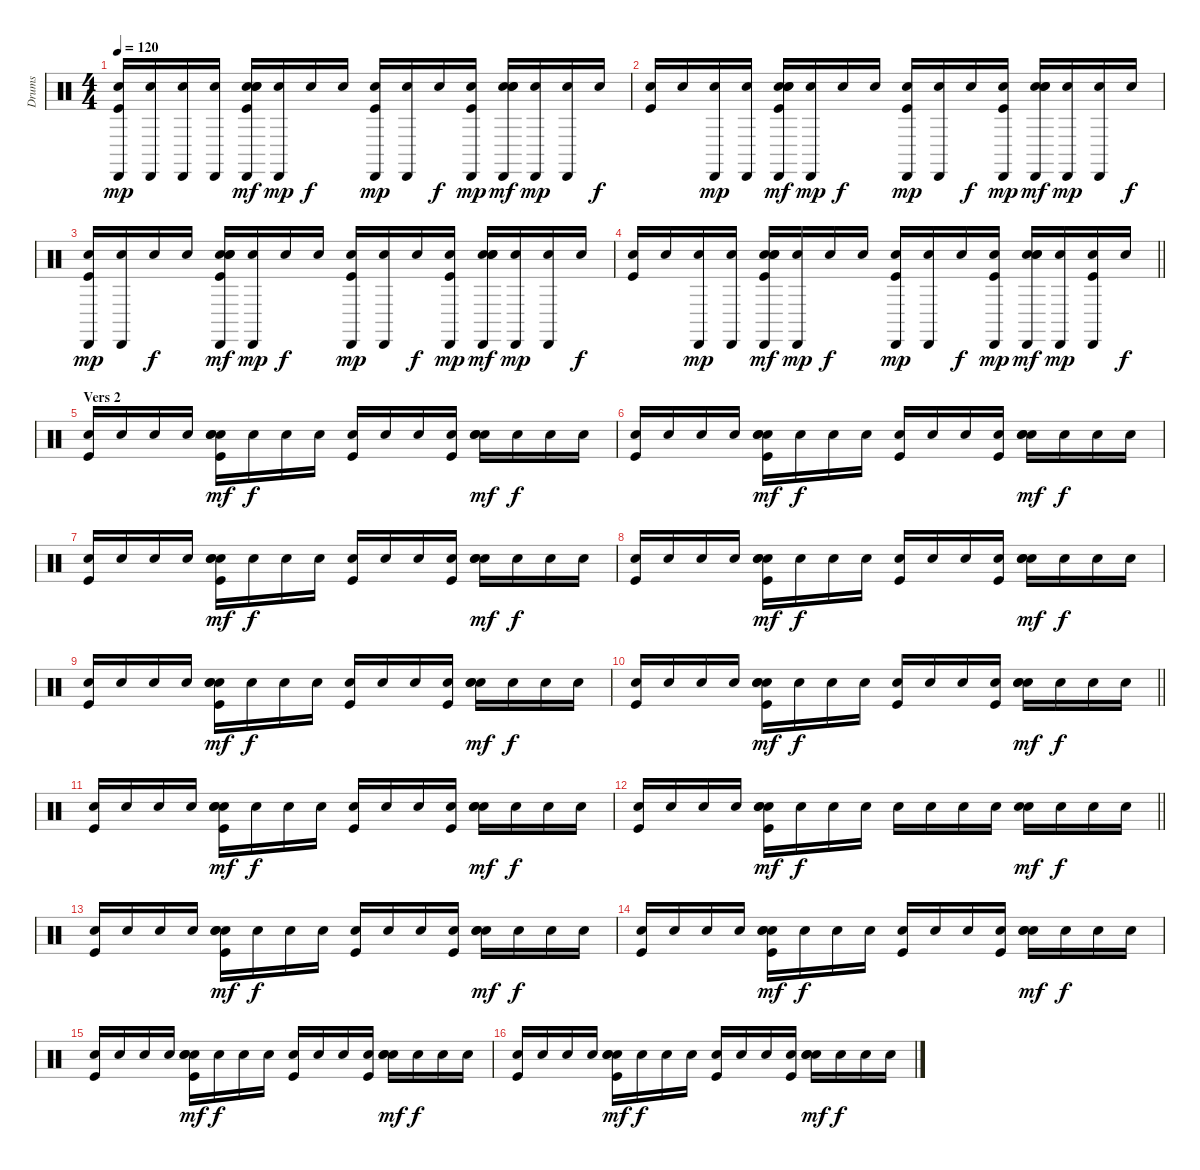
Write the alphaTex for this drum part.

\track ("Drums" "Drums") {instrument percussion}
\staff {score}
\articulation defaults
\ts (4 4)
\tempo 120
\clef neutral
\ks c
("Snare (hit)" "Cabasa (hit)" "Kick (hit)").16{dy mp} ("Snare (hit)" "Cabasa (hit)").16 ("Snare (hit)" "Cabasa (hit)").16 ("Snare (hit)" "Cabasa (hit)").16 ("Snare (hit)" "Cabasa (hit)" "Hand Clap (hit)" "Electric Snare (hit)" "Kick (hit)").16{dy mf} ("Snare (hit)" "Cabasa (hit)").16{dy mp} "Snare (hit)".16{dy f} "Snare (hit)".16 ("Snare (hit)" "Cabasa (hit)" "Kick (hit)").16{dy mp} ("Snare (hit)" "Cabasa (hit)").16 "Snare (hit)".16{dy f} ("Snare (hit)" "Cabasa (hit)" "Kick (hit)").16{dy mp} ("Snare (hit)" "Cabasa (hit)" "Hand Clap (hit)" "Electric Snare (hit)").16{dy mf} ("Snare (hit)" "Cabasa (hit)").16{dy mp} ("Snare (hit)" "Cabasa (hit)").16 "Snare (hit)".16{dy f} |
("Snare (hit)" "Kick (hit)").16 "Snare (hit)".16 ("Snare (hit)" "Cabasa (hit)").16{dy mp} ("Snare (hit)" "Cabasa (hit)").16 ("Snare (hit)" "Cabasa (hit)" "Hand Clap (hit)" "Electric Snare (hit)" "Kick (hit)").16{dy mf} ("Snare (hit)" "Cabasa (hit)").16{dy mp} "Snare (hit)".16{dy f} "Snare (hit)".16 ("Snare (hit)" "Cabasa (hit)" "Kick (hit)").16{dy mp} ("Snare (hit)" "Cabasa (hit)").16 "Snare (hit)".16{dy f} ("Snare (hit)" "Cabasa (hit)" "Kick (hit)").16{dy mp} ("Snare (hit)" "Cabasa (hit)" "Hand Clap (hit)" "Electric Snare (hit)").16{dy mf} ("Snare (hit)" "Cabasa (hit)").16{dy mp} ("Snare (hit)" "Cabasa (hit)").16 "Snare (hit)".16{dy f} |
("Snare (hit)" "Cabasa (hit)" "Kick (hit)").16{dy mp} ("Snare (hit)" "Cabasa (hit)").16 "Snare (hit)".16{dy f} "Snare (hit)".16 ("Snare (hit)" "Cabasa (hit)" "Hand Clap (hit)" "Electric Snare (hit)" "Kick (hit)").16{dy mf} ("Snare (hit)" "Cabasa (hit)").16{dy mp} "Snare (hit)".16{dy f} "Snare (hit)".16 ("Snare (hit)" "Cabasa (hit)" "Kick (hit)").16{dy mp} ("Snare (hit)" "Cabasa (hit)").16 "Snare (hit)".16{dy f} ("Snare (hit)" "Cabasa (hit)" "Kick (hit)").16{dy mp} ("Snare (hit)" "Cabasa (hit)" "Hand Clap (hit)" "Electric Snare (hit)").16{dy mf} ("Snare (hit)" "Cabasa (hit)").16{dy mp} ("Snare (hit)" "Cabasa (hit)").16 "Snare (hit)".16{dy f} |
\barLineRight lightlight
("Snare (hit)" "Kick (hit)").16 "Snare (hit)".16 ("Snare (hit)" "Cabasa (hit)").16{dy mp} ("Snare (hit)" "Cabasa (hit)").16 ("Snare (hit)" "Cabasa (hit)" "Hand Clap (hit)" "Electric Snare (hit)" "Kick (hit)").16{dy mf} ("Snare (hit)" "Cabasa (hit)").16{dy mp} "Snare (hit)".16{dy f} "Snare (hit)".16 ("Snare (hit)" "Cabasa (hit)" "Kick (hit)").16{dy mp} ("Snare (hit)" "Cabasa (hit)").16 "Snare (hit)".16{dy f} ("Snare (hit)" "Cabasa (hit)" "Kick (hit)").16{dy mp} ("Snare (hit)" "Cabasa (hit)" "Hand Clap (hit)" "Electric Snare (hit)").16{dy mf} ("Snare (hit)" "Cabasa (hit)").16{dy mp} ("Snare (hit)" "Cabasa (hit)" "Kick (hit)").16 "Snare (hit)".16{dy f} |
\section ("" "Vers 2")
("Snare (hit)" "Kick (hit)").16 "Snare (hit)".16 "Snare (hit)".16 "Snare (hit)".16 ("Snare (hit)" "Hand Clap (hit)" "Electric Snare (hit)" "Kick (hit)").16{dy mf} "Snare (hit)".16{dy f} "Snare (hit)".16 "Snare (hit)".16 ("Snare (hit)" "Kick (hit)").16 "Snare (hit)".16 "Snare (hit)".16 ("Snare (hit)" "Kick (hit)").16 ("Snare (hit)" "Hand Clap (hit)" "Electric Snare (hit)").16{dy mf} "Snare (hit)".16{dy f} "Snare (hit)".16 "Snare (hit)".16 |
("Snare (hit)" "Kick (hit)").16 "Snare (hit)".16 "Snare (hit)".16 "Snare (hit)".16 ("Snare (hit)" "Hand Clap (hit)" "Electric Snare (hit)" "Kick (hit)").16{dy mf} "Snare (hit)".16{dy f} "Snare (hit)".16 "Snare (hit)".16 ("Snare (hit)" "Kick (hit)").16 "Snare (hit)".16 "Snare (hit)".16 ("Snare (hit)" "Kick (hit)").16 ("Snare (hit)" "Hand Clap (hit)" "Electric Snare (hit)").16{dy mf} "Snare (hit)".16{dy f} "Snare (hit)".16 "Snare (hit)".16 |
("Snare (hit)" "Kick (hit)").16 "Snare (hit)".16 "Snare (hit)".16 "Snare (hit)".16 ("Snare (hit)" "Hand Clap (hit)" "Electric Snare (hit)" "Kick (hit)").16{dy mf} "Snare (hit)".16{dy f} "Snare (hit)".16 "Snare (hit)".16 ("Snare (hit)" "Kick (hit)").16 "Snare (hit)".16 "Snare (hit)".16 ("Snare (hit)" "Kick (hit)").16 ("Snare (hit)" "Hand Clap (hit)" "Electric Snare (hit)").16{dy mf} "Snare (hit)".16{dy f} "Snare (hit)".16 "Snare (hit)".16 |
("Snare (hit)" "Kick (hit)").16 "Snare (hit)".16 "Snare (hit)".16 "Snare (hit)".16 ("Snare (hit)" "Hand Clap (hit)" "Electric Snare (hit)" "Kick (hit)").16{dy mf} "Snare (hit)".16{dy f} "Snare (hit)".16 "Snare (hit)".16 ("Snare (hit)" "Kick (hit)").16 "Snare (hit)".16 "Snare (hit)".16 ("Snare (hit)" "Kick (hit)").16 ("Snare (hit)" "Hand Clap (hit)" "Electric Snare (hit)").16{dy mf} "Snare (hit)".16{dy f} "Snare (hit)".16 "Snare (hit)".16 |
("Snare (hit)" "Kick (hit)").16 "Snare (hit)".16 "Snare (hit)".16 "Snare (hit)".16 ("Snare (hit)" "Hand Clap (hit)" "Electric Snare (hit)" "Kick (hit)").16{dy mf} "Snare (hit)".16{dy f} "Snare (hit)".16 "Snare (hit)".16 ("Snare (hit)" "Kick (hit)").16 "Snare (hit)".16 "Snare (hit)".16 ("Snare (hit)" "Kick (hit)").16 ("Snare (hit)" "Hand Clap (hit)" "Electric Snare (hit)").16{dy mf} "Snare (hit)".16{dy f} "Snare (hit)".16 "Snare (hit)".16 |
\barLineRight lightlight
("Snare (hit)" "Kick (hit)").16 "Snare (hit)".16 "Snare (hit)".16 "Snare (hit)".16 ("Snare (hit)" "Hand Clap (hit)" "Electric Snare (hit)" "Kick (hit)").16{dy mf} "Snare (hit)".16{dy f} "Snare (hit)".16 "Snare (hit)".16 ("Snare (hit)" "Kick (hit)").16 "Snare (hit)".16 "Snare (hit)".16 ("Snare (hit)" "Kick (hit)").16 ("Snare (hit)" "Hand Clap (hit)" "Electric Snare (hit)").16{dy mf} "Snare (hit)".16{dy f} "Snare (hit)".16 "Snare (hit)".16 |
("Snare (hit)" "Kick (hit)").16 "Snare (hit)".16 "Snare (hit)".16 "Snare (hit)".16 ("Snare (hit)" "Hand Clap (hit)" "Electric Snare (hit)" "Kick (hit)").16{dy mf} "Snare (hit)".16{dy f} "Snare (hit)".16 "Snare (hit)".16 ("Snare (hit)" "Kick (hit)").16 "Snare (hit)".16 "Snare (hit)".16 ("Snare (hit)" "Kick (hit)").16 ("Snare (hit)" "Hand Clap (hit)" "Electric Snare (hit)").16{dy mf} "Snare (hit)".16{dy f} "Snare (hit)".16 "Snare (hit)".16 |
\barLineRight lightlight
("Snare (hit)" "Kick (hit)").16 "Snare (hit)".16 "Snare (hit)".16 "Snare (hit)".16 ("Snare (hit)" "Hand Clap (hit)" "Electric Snare (hit)" "Kick (hit)").16{dy mf} "Snare (hit)".16{dy f} "Snare (hit)".16 "Snare (hit)".16 "Snare (hit)".16 "Snare (hit)".16 "Snare (hit)".16 "Snare (hit)".16 ("Snare (hit)" "Hand Clap (hit)").16{dy mf} "Snare (hit)".16{dy f} "Snare (hit)".16 "Snare (hit)".16 |
("Snare (hit)" "Kick (hit)").16 "Snare (hit)".16 "Snare (hit)".16 "Snare (hit)".16 ("Snare (hit)" "Hand Clap (hit)" "Electric Snare (hit)" "Kick (hit)").16{dy mf} "Snare (hit)".16{dy f} "Snare (hit)".16 "Snare (hit)".16 ("Snare (hit)" "Kick (hit)").16 "Snare (hit)".16 "Snare (hit)".16 ("Snare (hit)" "Kick (hit)").16 ("Snare (hit)" "Hand Clap (hit)" "Electric Snare (hit)").16{dy mf} "Snare (hit)".16{dy f} "Snare (hit)".16 "Snare (hit)".16 |
("Snare (hit)" "Kick (hit)").16 "Snare (hit)".16 "Snare (hit)".16 "Snare (hit)".16 ("Snare (hit)" "Hand Clap (hit)" "Electric Snare (hit)" "Kick (hit)").16{dy mf} "Snare (hit)".16{dy f} "Snare (hit)".16 "Snare (hit)".16 ("Snare (hit)" "Kick (hit)").16 "Snare (hit)".16 "Snare (hit)".16 ("Snare (hit)" "Kick (hit)").16 ("Snare (hit)" "Hand Clap (hit)" "Electric Snare (hit)").16{dy mf} "Snare (hit)".16{dy f} "Snare (hit)".16 "Snare (hit)".16 |
("Snare (hit)" "Kick (hit)").16 "Snare (hit)".16 "Snare (hit)".16 "Snare (hit)".16 ("Snare (hit)" "Hand Clap (hit)" "Electric Snare (hit)" "Kick (hit)").16{dy mf} "Snare (hit)".16{dy f} "Snare (hit)".16 "Snare (hit)".16 ("Snare (hit)" "Kick (hit)").16 "Snare (hit)".16 "Snare (hit)".16 ("Snare (hit)" "Kick (hit)").16 ("Snare (hit)" "Hand Clap (hit)" "Electric Snare (hit)").16{dy mf} "Snare (hit)".16{dy f} "Snare (hit)".16 "Snare (hit)".16 |
("Snare (hit)" "Kick (hit)").16 "Snare (hit)".16 "Snare (hit)".16 "Snare (hit)".16 ("Snare (hit)" "Hand Clap (hit)" "Electric Snare (hit)" "Kick (hit)").16{dy mf} "Snare (hit)".16{dy f} "Snare (hit)".16 "Snare (hit)".16 ("Snare (hit)" "Kick (hit)").16 "Snare (hit)".16 "Snare (hit)".16 ("Snare (hit)" "Kick (hit)").16 ("Snare (hit)" "Hand Clap (hit)" "Electric Snare (hit)").16{dy mf} "Snare (hit)".16{dy f} "Snare (hit)".16 "Snare (hit)".16
